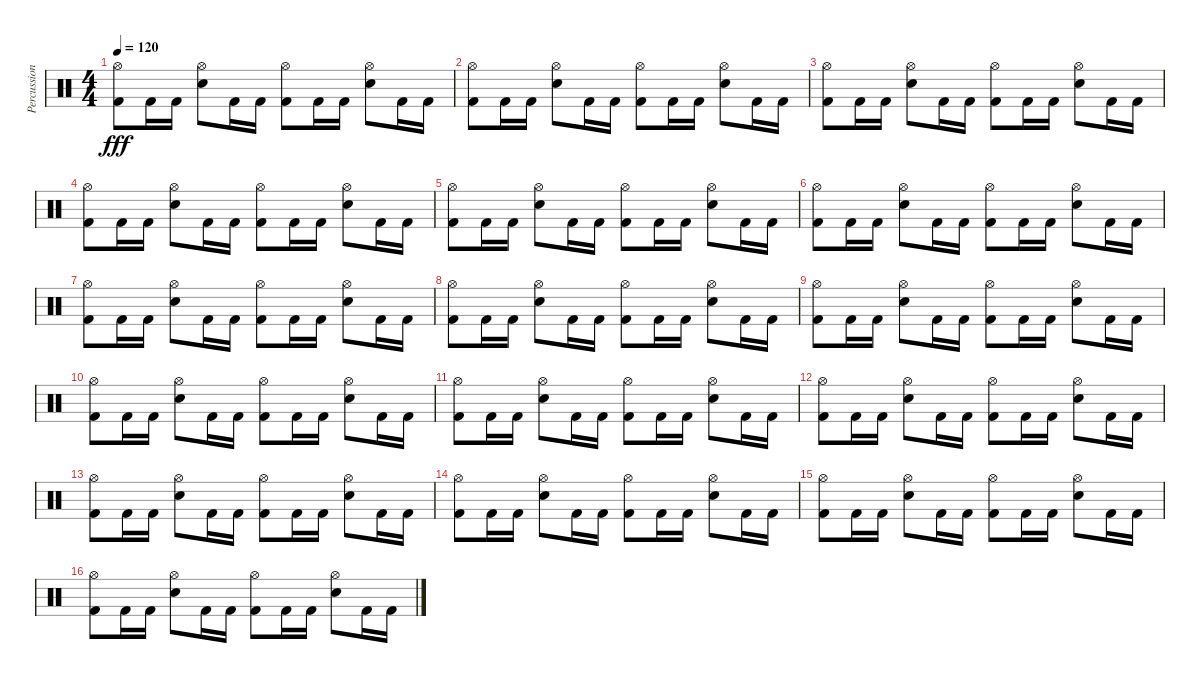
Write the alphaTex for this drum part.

\track ("Percussion" "Percussion") {instrument percussion}
\staff {score}
\articulation defaults
\ts (4 4)
\tempo 120
\clef neutral
\ks c
("Hi-Hat (open)" "Kick (hit) 2").8{dy fff} "Kick (hit) 2".16 "Kick (hit) 2".16 ("Hi-Hat (open)" "Electric Snare (hit)").8 "Kick (hit) 2".16 "Kick (hit) 2".16 ("Hi-Hat (open)" "Kick (hit) 2").8 "Kick (hit) 2".16 "Kick (hit) 2".16 ("Hi-Hat (open)" "Electric Snare (hit)").8 "Kick (hit) 2".16 "Kick (hit) 2".16 |
("Hi-Hat (open)" "Kick (hit) 2").8 "Kick (hit) 2".16 "Kick (hit) 2".16 ("Hi-Hat (open)" "Electric Snare (hit)").8 "Kick (hit) 2".16 "Kick (hit) 2".16 ("Hi-Hat (open)" "Kick (hit) 2").8 "Kick (hit) 2".16 "Kick (hit) 2".16 ("Hi-Hat (open)" "Electric Snare (hit)").8 "Kick (hit) 2".16 "Kick (hit) 2".16 |
("Hi-Hat (open)" "Kick (hit) 2").8 "Kick (hit) 2".16 "Kick (hit) 2".16 ("Hi-Hat (open)" "Electric Snare (hit)").8 "Kick (hit) 2".16 "Kick (hit) 2".16 ("Hi-Hat (open)" "Kick (hit) 2").8 "Kick (hit) 2".16 "Kick (hit) 2".16 ("Hi-Hat (open)" "Electric Snare (hit)").8 "Kick (hit) 2".16 "Kick (hit) 2".16 |
("Hi-Hat (open)" "Kick (hit) 2").8 "Kick (hit) 2".16 "Kick (hit) 2".16 ("Hi-Hat (open)" "Electric Snare (hit)").8 "Kick (hit) 2".16 "Kick (hit) 2".16 ("Hi-Hat (open)" "Kick (hit) 2").8 "Kick (hit) 2".16 "Kick (hit) 2".16 ("Hi-Hat (open)" "Electric Snare (hit)").8 "Kick (hit) 2".16 "Kick (hit) 2".16 |
("Hi-Hat (open)" "Kick (hit) 2").8 "Kick (hit) 2".16 "Kick (hit) 2".16 ("Hi-Hat (open)" "Electric Snare (hit)").8 "Kick (hit) 2".16 "Kick (hit) 2".16 ("Hi-Hat (open)" "Kick (hit) 2").8 "Kick (hit) 2".16 "Kick (hit) 2".16 ("Hi-Hat (open)" "Electric Snare (hit)").8 "Kick (hit) 2".16 "Kick (hit) 2".16 |
("Hi-Hat (open)" "Kick (hit) 2").8 "Kick (hit) 2".16 "Kick (hit) 2".16 ("Hi-Hat (open)" "Electric Snare (hit)").8 "Kick (hit) 2".16 "Kick (hit) 2".16 ("Hi-Hat (open)" "Kick (hit) 2").8 "Kick (hit) 2".16 "Kick (hit) 2".16 ("Hi-Hat (open)" "Electric Snare (hit)").8 "Kick (hit) 2".16 "Kick (hit) 2".16 |
("Hi-Hat (open)" "Kick (hit) 2").8 "Kick (hit) 2".16 "Kick (hit) 2".16 ("Hi-Hat (open)" "Electric Snare (hit)").8 "Kick (hit) 2".16 "Kick (hit) 2".16 ("Hi-Hat (open)" "Kick (hit) 2").8 "Kick (hit) 2".16 "Kick (hit) 2".16 ("Hi-Hat (open)" "Electric Snare (hit)").8 "Kick (hit) 2".16 "Kick (hit) 2".16 |
("Hi-Hat (open)" "Kick (hit) 2").8 "Kick (hit) 2".16 "Kick (hit) 2".16 ("Hi-Hat (open)" "Electric Snare (hit)").8 "Kick (hit) 2".16 "Kick (hit) 2".16 ("Hi-Hat (open)" "Kick (hit) 2").8 "Kick (hit) 2".16 "Kick (hit) 2".16 ("Hi-Hat (open)" "Electric Snare (hit)").8 "Kick (hit) 2".16 "Kick (hit) 2".16 |
("Hi-Hat (open)" "Kick (hit) 2").8 "Kick (hit) 2".16 "Kick (hit) 2".16 ("Hi-Hat (open)" "Electric Snare (hit)").8 "Kick (hit) 2".16 "Kick (hit) 2".16 ("Hi-Hat (open)" "Kick (hit) 2").8 "Kick (hit) 2".16 "Kick (hit) 2".16 ("Hi-Hat (open)" "Electric Snare (hit)").8 "Kick (hit) 2".16 "Kick (hit) 2".16 |
("Hi-Hat (open)" "Kick (hit) 2").8 "Kick (hit) 2".16 "Kick (hit) 2".16 ("Hi-Hat (open)" "Electric Snare (hit)").8 "Kick (hit) 2".16 "Kick (hit) 2".16 ("Hi-Hat (open)" "Kick (hit) 2").8 "Kick (hit) 2".16 "Kick (hit) 2".16 ("Hi-Hat (open)" "Electric Snare (hit)").8 "Kick (hit) 2".16 "Kick (hit) 2".16 |
("Hi-Hat (open)" "Kick (hit) 2").8 "Kick (hit) 2".16 "Kick (hit) 2".16 ("Hi-Hat (open)" "Electric Snare (hit)").8 "Kick (hit) 2".16 "Kick (hit) 2".16 ("Hi-Hat (open)" "Kick (hit) 2").8 "Kick (hit) 2".16 "Kick (hit) 2".16 ("Hi-Hat (open)" "Electric Snare (hit)").8 "Kick (hit) 2".16 "Kick (hit) 2".16 |
("Hi-Hat (open)" "Kick (hit) 2").8 "Kick (hit) 2".16 "Kick (hit) 2".16 ("Hi-Hat (open)" "Electric Snare (hit)").8 "Kick (hit) 2".16 "Kick (hit) 2".16 ("Hi-Hat (open)" "Kick (hit) 2").8 "Kick (hit) 2".16 "Kick (hit) 2".16 ("Hi-Hat (open)" "Electric Snare (hit)").8 "Kick (hit) 2".16 "Kick (hit) 2".16 |
("Hi-Hat (open)" "Kick (hit) 2").8 "Kick (hit) 2".16 "Kick (hit) 2".16 ("Hi-Hat (open)" "Electric Snare (hit)").8 "Kick (hit) 2".16 "Kick (hit) 2".16 ("Hi-Hat (open)" "Kick (hit) 2").8 "Kick (hit) 2".16 "Kick (hit) 2".16 ("Hi-Hat (open)" "Electric Snare (hit)").8 "Kick (hit) 2".16 "Kick (hit) 2".16 |
("Hi-Hat (open)" "Kick (hit) 2").8 "Kick (hit) 2".16 "Kick (hit) 2".16 ("Hi-Hat (open)" "Electric Snare (hit)").8 "Kick (hit) 2".16 "Kick (hit) 2".16 ("Hi-Hat (open)" "Kick (hit) 2").8 "Kick (hit) 2".16 "Kick (hit) 2".16 ("Hi-Hat (open)" "Electric Snare (hit)").8 "Kick (hit) 2".16 "Kick (hit) 2".16 |
("Hi-Hat (open)" "Kick (hit) 2").8 "Kick (hit) 2".16 "Kick (hit) 2".16 ("Hi-Hat (open)" "Electric Snare (hit)").8 "Kick (hit) 2".16 "Kick (hit) 2".16 ("Hi-Hat (open)" "Kick (hit) 2").8 "Kick (hit) 2".16 "Kick (hit) 2".16 ("Hi-Hat (open)" "Electric Snare (hit)").8 "Kick (hit) 2".16 "Kick (hit) 2".16 |
("Hi-Hat (open)" "Kick (hit) 2").8 "Kick (hit) 2".16 "Kick (hit) 2".16 ("Hi-Hat (open)" "Electric Snare (hit)").8 "Kick (hit) 2".16 "Kick (hit) 2".16 ("Hi-Hat (open)" "Kick (hit) 2").8 "Kick (hit) 2".16 "Kick (hit) 2".16 ("Hi-Hat (open)" "Electric Snare (hit)").8 "Kick (hit) 2".16 "Kick (hit) 2".16
